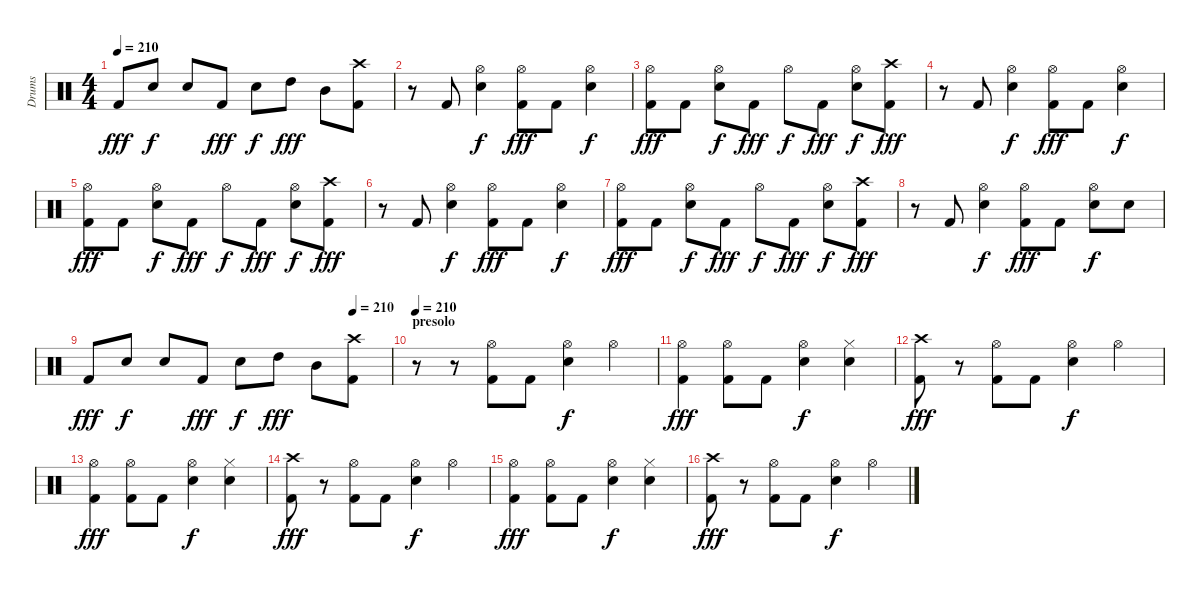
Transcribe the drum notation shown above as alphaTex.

\track ("Drums" "Drums") {instrument percussion}
\staff {score}
\articulation defaults
\ts (4 4)
\tempo 210
\clef neutral
\ks c "Kick (hit) 2".8{dy fff} "Snare (hit) 2".8{dy f} "Snare (hit) 2".8 "Kick (hit) 2".8{dy fff} "Snare (hit) 2".8{dy f} "High Tom (hit)".8{dy fff} "Mid Tom (hit)".8
("Crash high (hit)" "Kick (hit) 2").8 |
r.8 "Kick (hit) 2".8 ("Hi-Hat (open)" "Snare (hit) 2").4{dy f} ("Hi-Hat (open)" "Kick (hit) 2").8{dy fff} "Kick (hit) 2".8 ("Hi-Hat (open)" "Snare (hit) 2").4{dy f} |
("Hi-Hat (open)" "Kick (hit) 2").8{dy fff} "Kick (hit) 2".8 ("Hi-Hat (open)" "Snare (hit) 2").8{dy f} "Kick (hit) 2".8{dy fff} "Hi-Hat (open)".8{dy f} "Kick (hit) 2".8{dy fff} ("Hi-Hat (open)" "Snare (hit) 2").8{dy f} ("Crash high (hit)" "Kick (hit) 2").8{dy fff} |
r.8 "Kick (hit) 2".8 ("Hi-Hat (open)" "Snare (hit) 2").4{dy f} ("Hi-Hat (open)" "Kick (hit) 2").8{dy fff} "Kick (hit) 2".8 ("Hi-Hat (open)" "Snare (hit) 2").4{dy f} |
("Hi-Hat (open)" "Kick (hit) 2").8{dy fff} "Kick (hit) 2".8 ("Hi-Hat (open)" "Snare (hit) 2").8{dy f} "Kick (hit) 2".8{dy fff} "Hi-Hat (open)".8{dy f} "Kick (hit) 2".8{dy fff} ("Hi-Hat (open)" "Snare (hit) 2").8{dy f} ("Crash high (hit)" "Kick (hit) 2").8{dy fff} |
r.8 "Kick (hit) 2".8 ("Hi-Hat (open)" "Snare (hit) 2").4{dy f} ("Hi-Hat (open)" "Kick (hit) 2").8{dy fff} "Kick (hit) 2".8 ("Hi-Hat (open)" "Snare (hit) 2").4{dy f} |
("Hi-Hat (open)" "Kick (hit) 2").8{dy fff} "Kick (hit) 2".8 ("Hi-Hat (open)" "Snare (hit) 2").8{dy f} "Kick (hit) 2".8{dy fff} "Hi-Hat (open)".8{dy f} "Kick (hit) 2".8{dy fff} ("Hi-Hat (open)" "Snare (hit) 2").8{dy f} ("Crash high (hit)" "Kick (hit) 2").8{dy fff} |
r.8 "Kick (hit) 2".8 ("Hi-Hat (open)" "Snare (hit) 2").4{dy f} ("Hi-Hat (open)" "Kick (hit) 2").8{dy fff} "Kick (hit) 2".8 ("Hi-Hat (open)" "Snare (hit) 2").8{dy f} "Snare (hit) 2".8 |
\tempo (210 0.875)
"Kick (hit) 2".8{dy fff} "Snare (hit) 2".8{dy f} "Snare (hit) 2".8 "Kick (hit) 2".8{dy fff} "Snare (hit) 2".8{dy f} "High Tom (hit)".8{dy fff} "Mid Tom (hit)".8 ("Crash high (hit)" "Kick (hit) 2").8 |
\section ("" "presolo")
\tempo 210
r.8 r.8 ("Hi-Hat (open)" "Kick (hit) 2").8 "Kick (hit) 2".8 ("Hi-Hat (open)" "Snare (hit) 2").4{dy f} "Hi-Hat (open)".4 |
("Hi-Hat (open)" "Kick (hit) 2").4{dy fff} ("Hi-Hat (open)" "Kick (hit) 2").8 "Kick (hit) 2".8 ("Hi-Hat (open)" "Snare (hit) 2").4{dy f} ("Hi-Hat (closed)" "Snare (hit) 2").4 |
("Crash high (hit)" "Kick (hit) 2").8{dy fff} r.8 ("Hi-Hat (open)" "Kick (hit) 2").8 "Kick (hit) 2".8 ("Hi-Hat (open)" "Snare (hit) 2").4{dy f} "Hi-Hat (open)".4 |
("Hi-Hat (open)" "Kick (hit) 2").4{dy fff} ("Hi-Hat (open)" "Kick (hit) 2").8 "Kick (hit) 2".8 ("Hi-Hat (open)" "Snare (hit) 2").4{dy f} ("Hi-Hat (closed)" "Snare (hit) 2").4 |
("Crash high (hit)" "Kick (hit) 2").8{dy fff} r.8 ("Hi-Hat (open)" "Kick (hit) 2").8 "Kick (hit) 2".8 ("Hi-Hat (open)" "Snare (hit) 2").4{dy f} "Hi-Hat (open)".4 |
("Hi-Hat (open)" "Kick (hit) 2").4{dy fff} ("Hi-Hat (open)" "Kick (hit) 2").8 "Kick (hit) 2".8 ("Hi-Hat (open)" "Snare (hit) 2").4{dy f} ("Hi-Hat (closed)" "Snare (hit) 2").4 |
("Crash high (hit)" "Kick (hit) 2").8{dy fff} r.8 ("Hi-Hat (open)" "Kick (hit) 2").8 "Kick (hit) 2".8 ("Hi-Hat (open)" "Snare (hit) 2").4{dy f} "Hi-Hat (open)".4
